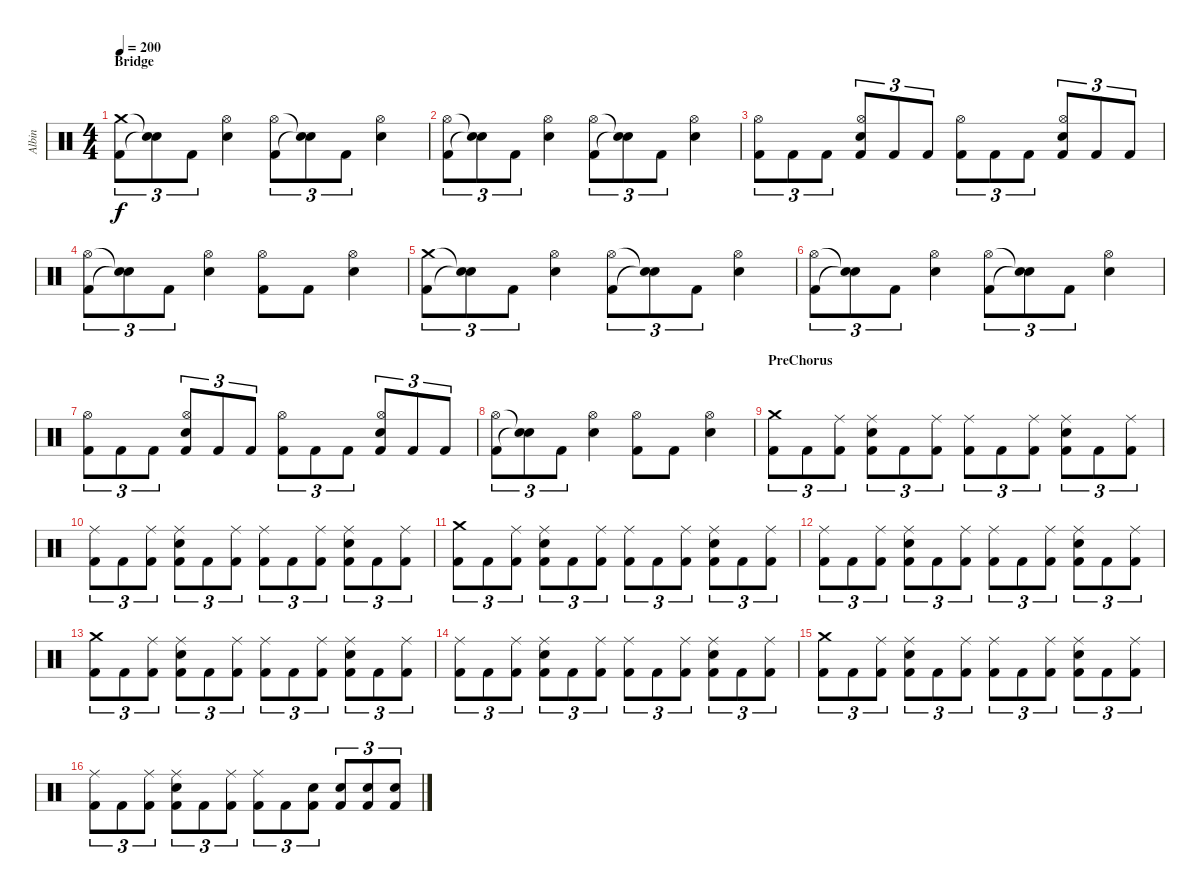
\track ("Albin" "Albin") {instrument percussion}
\staff {score}
\articulation defaults
\ts (4 4)
\section ("" "Bridge")
\tempo 200
\clef neutral
\ks c
("Crash medium (hit)" "Kick (hit) 2").8{tu (3 2) dy f} ("Snare (hit)"{t} "Snare (hit)"{t}).8{tu (3 2)} "Kick (hit) 2".8{tu (3 2)} ("Hi-Hat (open)" "Electric Snare (hit)").4 ("Hi-Hat (open)" "Kick (hit) 2").8{tu (3 2)} ("Snare (hit)"{t} "Snare (hit)"{t}).8{tu (3 2)} "Kick (hit) 2".8{tu (3 2)} ("Hi-Hat (open)" "Electric Snare (hit)").4 |
("Hi-Hat (open)" "Kick (hit) 2").8{tu (3 2)} ("Snare (hit)"{t} "Snare (hit)"{t}).8{tu (3 2)} "Kick (hit) 2".8{tu (3 2)} ("Hi-Hat (open)" "Electric Snare (hit)").4 ("Hi-Hat (open)" "Kick (hit) 2").8{tu (3 2)} ("Snare (hit)"{t} "Snare (hit)"{t}).8{tu (3 2)} "Kick (hit) 2".8{tu (3 2)} ("Hi-Hat (open)" "Electric Snare (hit)").4 |
("Hi-Hat (open)" "Kick (hit) 2").8{tu (3 2)} "Kick (hit) 2".8{tu (3 2)} "Kick (hit) 2".8{tu (3 2)} ("Hi-Hat (open)" "Electric Snare (hit)" "Kick (hit) 2").8{tu (3 2)} "Kick (hit) 2".8{tu (3 2)} "Kick (hit) 2".8{tu (3 2)} ("Hi-Hat (open)" "Kick (hit) 2").8{tu (3 2)} "Kick (hit) 2".8{tu (3 2)} "Kick (hit) 2".8{tu (3 2)} ("Hi-Hat (open)" "Electric Snare (hit)" "Kick (hit) 2").8{tu (3 2)} "Kick (hit) 2".8{tu (3 2)} "Kick (hit) 2".8{tu (3 2)} |
("Hi-Hat (open)" "Kick (hit) 2").8{tu (3 2)} ("Snare (hit)"{t} "Snare (hit)"{t}).8{tu (3 2)} "Kick (hit) 2".8{tu (3 2)} ("Hi-Hat (open)" "Electric Snare (hit)").4 ("Hi-Hat (open)" "Kick (hit) 2").8 "Kick (hit) 2".8 ("Hi-Hat (open)" "Electric Snare (hit)").4 |
("Crash medium (hit)" "Kick (hit) 2").8{tu (3 2)} ("Snare (hit)"{t} "Snare (hit)"{t}).8{tu (3 2)} "Kick (hit) 2".8{tu (3 2)} ("Hi-Hat (open)" "Electric Snare (hit)").4 ("Hi-Hat (open)" "Kick (hit) 2").8{tu (3 2)} ("Snare (hit)"{t} "Snare (hit)"{t}).8{tu (3 2)} "Kick (hit) 2".8{tu (3 2)} ("Hi-Hat (open)" "Electric Snare (hit)").4 |
("Hi-Hat (open)" "Kick (hit) 2").8{tu (3 2)} ("Snare (hit)"{t} "Snare (hit)"{t}).8{tu (3 2)} "Kick (hit) 2".8{tu (3 2)} ("Hi-Hat (open)" "Electric Snare (hit)").4 ("Hi-Hat (open)" "Kick (hit) 2").8{tu (3 2)} ("Snare (hit)"{t} "Snare (hit)"{t}).8{tu (3 2)} "Kick (hit) 2".8{tu (3 2)} ("Hi-Hat (open)" "Electric Snare (hit)").4 |
("Hi-Hat (open)" "Kick (hit) 2").8{tu (3 2)} "Kick (hit) 2".8{tu (3 2)} "Kick (hit) 2".8{tu (3 2)} ("Hi-Hat (open)" "Electric Snare (hit)" "Kick (hit) 2").8{tu (3 2)} "Kick (hit) 2".8{tu (3 2)} "Kick (hit) 2".8{tu (3 2)} ("Hi-Hat (open)" "Kick (hit) 2").8{tu (3 2)} "Kick (hit) 2".8{tu (3 2)} "Kick (hit) 2".8{tu (3 2)} ("Hi-Hat (open)" "Electric Snare (hit)" "Kick (hit) 2").8{tu (3 2)} "Kick (hit) 2".8{tu (3 2)} "Kick (hit) 2".8{tu (3 2)} |
("Hi-Hat (open)" "Kick (hit) 2").8{tu (3 2)} ("Snare (hit)"{t} "Snare (hit)"{t}).8{tu (3 2)} "Kick (hit) 2".8{tu (3 2)} ("Hi-Hat (open)" "Electric Snare (hit)").4 ("Hi-Hat (open)" "Kick (hit) 2").8 "Kick (hit) 2".8 ("Hi-Hat (open)" "Electric Snare (hit)").4 |
\section ("" "PreChorus")
("Crash medium (hit)" "Kick (hit) 2").8{tu (3 2)} "Kick (hit) 2".8{tu (3 2)} ("Ride (middle)" "Kick (hit) 2").8{tu (3 2)} ("Ride (middle)" "Electric Snare (hit)" "Kick (hit) 2").8{tu (3 2)} "Kick (hit) 2".8{tu (3 2)} ("Ride (middle)" "Kick (hit) 2").8{tu (3 2)} ("Ride (middle)" "Kick (hit) 2").8{tu (3 2)} "Kick (hit) 2".8{tu (3 2)} ("Ride (middle)" "Kick (hit) 2").8{tu (3 2)} ("Ride (middle)" "Electric Snare (hit)" "Kick (hit) 2").8{tu (3 2)} "Kick (hit) 2".8{tu (3 2)} ("Ride (middle)" "Kick (hit) 2").8{tu (3 2)} |
("Ride (middle)" "Kick (hit) 2").8{tu (3 2)} "Kick (hit) 2".8{tu (3 2)} ("Ride (middle)" "Kick (hit) 2").8{tu (3 2)} ("Ride (middle)" "Electric Snare (hit)" "Kick (hit) 2").8{tu (3 2)} "Kick (hit) 2".8{tu (3 2)} ("Ride (middle)" "Kick (hit) 2").8{tu (3 2)} ("Ride (middle)" "Kick (hit) 2").8{tu (3 2)} "Kick (hit) 2".8{tu (3 2)} ("Ride (middle)" "Kick (hit) 2").8{tu (3 2)} ("Ride (middle)" "Electric Snare (hit)" "Kick (hit) 2").8{tu (3 2)} "Kick (hit) 2".8{tu (3 2)} ("Ride (middle)" "Kick (hit) 2").8{tu (3 2)} |
("Crash medium (hit)" "Kick (hit) 2").8{tu (3 2)} "Kick (hit) 2".8{tu (3 2)} ("Ride (middle)" "Kick (hit) 2").8{tu (3 2)} ("Ride (middle)" "Electric Snare (hit)" "Kick (hit) 2").8{tu (3 2)} "Kick (hit) 2".8{tu (3 2)} ("Ride (middle)" "Kick (hit) 2").8{tu (3 2)} ("Ride (middle)" "Kick (hit) 2").8{tu (3 2)} "Kick (hit) 2".8{tu (3 2)} ("Ride (middle)" "Kick (hit) 2").8{tu (3 2)} ("Ride (middle)" "Electric Snare (hit)" "Kick (hit) 2").8{tu (3 2)} "Kick (hit) 2".8{tu (3 2)} ("Ride (middle)" "Kick (hit) 2").8{tu (3 2)} |
("Ride (middle)" "Kick (hit) 2").8{tu (3 2)} "Kick (hit) 2".8{tu (3 2)} ("Ride (middle)" "Kick (hit) 2").8{tu (3 2)} ("Ride (middle)" "Electric Snare (hit)" "Kick (hit) 2").8{tu (3 2)} "Kick (hit) 2".8{tu (3 2)} ("Ride (middle)" "Kick (hit) 2").8{tu (3 2)} ("Ride (middle)" "Kick (hit) 2").8{tu (3 2)} "Kick (hit) 2".8{tu (3 2)} ("Ride (middle)" "Kick (hit) 2").8{tu (3 2)} ("Ride (middle)" "Electric Snare (hit)" "Kick (hit) 2").8{tu (3 2)} "Kick (hit) 2".8{tu (3 2)} ("Ride (middle)" "Kick (hit) 2").8{tu (3 2)} |
("Crash medium (hit)" "Kick (hit) 2").8{tu (3 2)} "Kick (hit) 2".8{tu (3 2)} ("Ride (middle)" "Kick (hit) 2").8{tu (3 2)} ("Ride (middle)" "Electric Snare (hit)" "Kick (hit) 2").8{tu (3 2)} "Kick (hit) 2".8{tu (3 2)} ("Ride (middle)" "Kick (hit) 2").8{tu (3 2)} ("Ride (middle)" "Kick (hit) 2").8{tu (3 2)} "Kick (hit) 2".8{tu (3 2)} ("Ride (middle)" "Kick (hit) 2").8{tu (3 2)} ("Ride (middle)" "Electric Snare (hit)" "Kick (hit) 2").8{tu (3 2)} "Kick (hit) 2".8{tu (3 2)} ("Ride (middle)" "Kick (hit) 2").8{tu (3 2)} |
("Ride (middle)" "Kick (hit) 2").8{tu (3 2)} "Kick (hit) 2".8{tu (3 2)} ("Ride (middle)" "Kick (hit) 2").8{tu (3 2)} ("Ride (middle)" "Electric Snare (hit)" "Kick (hit) 2").8{tu (3 2)} "Kick (hit) 2".8{tu (3 2)} ("Ride (middle)" "Kick (hit) 2").8{tu (3 2)} ("Ride (middle)" "Kick (hit) 2").8{tu (3 2)} "Kick (hit) 2".8{tu (3 2)} ("Ride (middle)" "Kick (hit) 2").8{tu (3 2)} ("Ride (middle)" "Electric Snare (hit)" "Kick (hit) 2").8{tu (3 2)} "Kick (hit) 2".8{tu (3 2)} ("Ride (middle)" "Kick (hit) 2").8{tu (3 2)} |
("Crash medium (hit)" "Kick (hit) 2").8{tu (3 2)} "Kick (hit) 2".8{tu (3 2)} ("Ride (middle)" "Kick (hit) 2").8{tu (3 2)} ("Ride (middle)" "Electric Snare (hit)" "Kick (hit) 2").8{tu (3 2)} "Kick (hit) 2".8{tu (3 2)} ("Ride (middle)" "Kick (hit) 2").8{tu (3 2)} ("Ride (middle)" "Kick (hit) 2").8{tu (3 2)} "Kick (hit) 2".8{tu (3 2)} ("Ride (middle)" "Kick (hit) 2").8{tu (3 2)} ("Ride (middle)" "Electric Snare (hit)" "Kick (hit) 2").8{tu (3 2)} "Kick (hit) 2".8{tu (3 2)} ("Ride (middle)" "Kick (hit) 2").8{tu (3 2)} |
("Ride (middle)" "Kick (hit) 2").8{tu (3 2)} "Kick (hit) 2".8{tu (3 2)} ("Ride (middle)" "Kick (hit) 2").8{tu (3 2)} ("Ride (middle)" "Electric Snare (hit)" "Kick (hit) 2").8{tu (3 2)} "Kick (hit) 2".8{tu (3 2)} ("Ride (middle)" "Kick (hit) 2").8{tu (3 2)} ("Ride (middle)" "Kick (hit) 2").8{tu (3 2)} "Kick (hit) 2".8{tu (3 2)} ("Electric Snare (hit)" "Kick (hit) 2").8{tu (3 2)} ("Electric Snare (hit)" "Kick (hit) 2").8{tu (3 2)} ("Electric Snare (hit)" "Kick (hit) 2").8{tu (3 2)} ("Electric Snare (hit)" "Kick (hit) 2").8{tu (3 2)}
